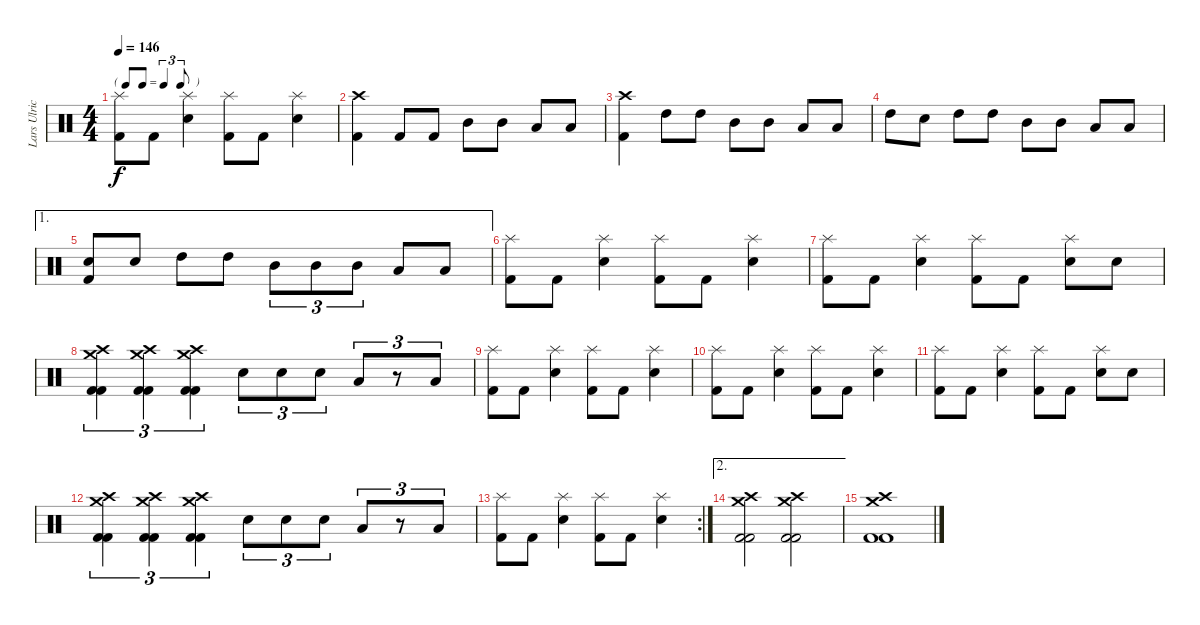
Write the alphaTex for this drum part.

\track ("Lars Ulrich" "Lars Ulric") {instrument percussion}
\staff {score}
\articulation defaults
\ts (4 4)
\tf triplet8th
\tempo 146
\clef neutral
\ks c
("Splash (hit)" "Kick (hit) 2").8{dy f} "Kick (hit) 2".8 ("Splash (hit)" "Snare (hit) 2").4 ("Splash (hit)" "Kick (hit) 2").8 "Kick (hit) 2".8 ("Splash (hit)" "Snare (hit) 2").4 |
("Crash high (hit)" "Kick (hit) 2").4 "Kick (hit) 2".8 "Kick (hit) 2".8 "Mid Tom (hit)".8 "Mid Tom (hit)".8 "Low Tom (hit)".8 "Low Tom (hit)".8 |
("Crash high (hit)" "Kick (hit) 2").4 "High Tom (hit)".8 "High Tom (hit)".8 "Mid Tom (hit)".8 "Mid Tom (hit)".8 "Low Tom (hit)".8 "Low Tom (hit)".8 |
"High Tom (hit)".8 "Snare (hit) 2".8 "High Tom (hit)".8 "High Tom (hit)".8 "Mid Tom (hit)".8 "Mid Tom (hit)".8 "Low Tom (hit)".8 "Low Tom (hit)".8 |
\ae 1
("Snare (hit) 2" "Kick (hit) 2").8 "Snare (hit) 2".8 "High Tom (hit)".8 "High Tom (hit)".8 "Mid Tom (hit)".8{tu (3 2)} "Mid Tom (hit)".8{tu (3 2)} "Mid Tom (hit)".8{tu (3 2)} "Low Tom (hit)".8 "Low Tom (hit)".8 |
("Splash (hit)" "Kick (hit) 2").8 "Kick (hit) 2".8 ("Splash (hit)" "Snare (hit) 2").4 ("Splash (hit)" "Kick (hit) 2").8 "Kick (hit) 2".8 ("Splash (hit)" "Snare (hit) 2").4 |
("Splash (hit)" "Kick (hit) 2").8 "Kick (hit) 2".8 ("Splash (hit)" "Snare (hit) 2").4 ("Splash (hit)" "Kick (hit) 2").8 "Kick (hit) 2".8 ("Splash (hit)" "Snare (hit) 2").8 "Snare (hit) 2".8 |
("Crash high (hit)" "Crash medium (hit)" "Kick (hit) 2" "Kick (hit) 2").4{tu (3 2)} ("Crash high (hit)" "Crash medium (hit)" "Kick (hit) 2" "Kick (hit) 2").4{tu (3 2)} ("Crash high (hit)" "Crash medium (hit)" "Kick (hit) 2" "Kick (hit) 2").4{tu (3 2)} "Snare (hit) 2".8{tu (3 2)} "Snare (hit) 2".8{tu (3 2)} "Snare (hit) 2".8{tu (3 2)} "Low Tom (hit)".8{tu (3 2)} r.8{tu (3 2)} "Low Tom (hit)".8{tu (3 2)} |
("Splash (hit)" "Kick (hit) 2").8 "Kick (hit) 2".8 ("Splash (hit)" "Snare (hit) 2").4 ("Splash (hit)" "Kick (hit) 2").8 "Kick (hit) 2".8 ("Splash (hit)" "Snare (hit) 2").4 |
("Splash (hit)" "Kick (hit) 2").8 "Kick (hit) 2".8 ("Splash (hit)" "Snare (hit) 2").4 ("Splash (hit)" "Kick (hit) 2").8 "Kick (hit) 2".8 ("Splash (hit)" "Snare (hit) 2").4 |
("Splash (hit)" "Kick (hit) 2").8 "Kick (hit) 2".8 ("Splash (hit)" "Snare (hit) 2").4 ("Splash (hit)" "Kick (hit) 2").8 "Kick (hit) 2".8 ("Splash (hit)" "Snare (hit) 2").8 "Snare (hit) 2".8 |
("Crash high (hit)" "Crash medium (hit)" "Kick (hit) 2" "Kick (hit) 2").4{tu (3 2)} ("Crash high (hit)" "Crash medium (hit)" "Kick (hit) 2" "Kick (hit) 2").4{tu (3 2)} ("Crash high (hit)" "Crash medium (hit)" "Kick (hit) 2" "Kick (hit) 2").4{tu (3 2)} "Snare (hit) 2".8{tu (3 2)} "Snare (hit) 2".8{tu (3 2)} "Snare (hit) 2".8{tu (3 2)} "Low Tom (hit)".8{tu (3 2)} r.8{tu (3 2)} "Low Tom (hit)".8{tu (3 2)} |
\rc 2
("Splash (hit)" "Kick (hit) 2").8 "Kick (hit) 2".8 ("Splash (hit)" "Snare (hit) 2").4 ("Splash (hit)" "Kick (hit) 2").8 "Kick (hit) 2".8 ("Splash (hit)" "Snare (hit) 2").4 |
\ae 2
("Crash medium (hit)" "Crash high (hit)" "Kick (hit) 2" "Kick (hit) 2").2 ("Crash medium (hit)" "Crash high (hit)" "Kick (hit) 2" "Kick (hit) 2").2 |
("Crash medium (hit)" "Crash high (hit)" "Kick (hit) 2" "Kick (hit) 2").1
